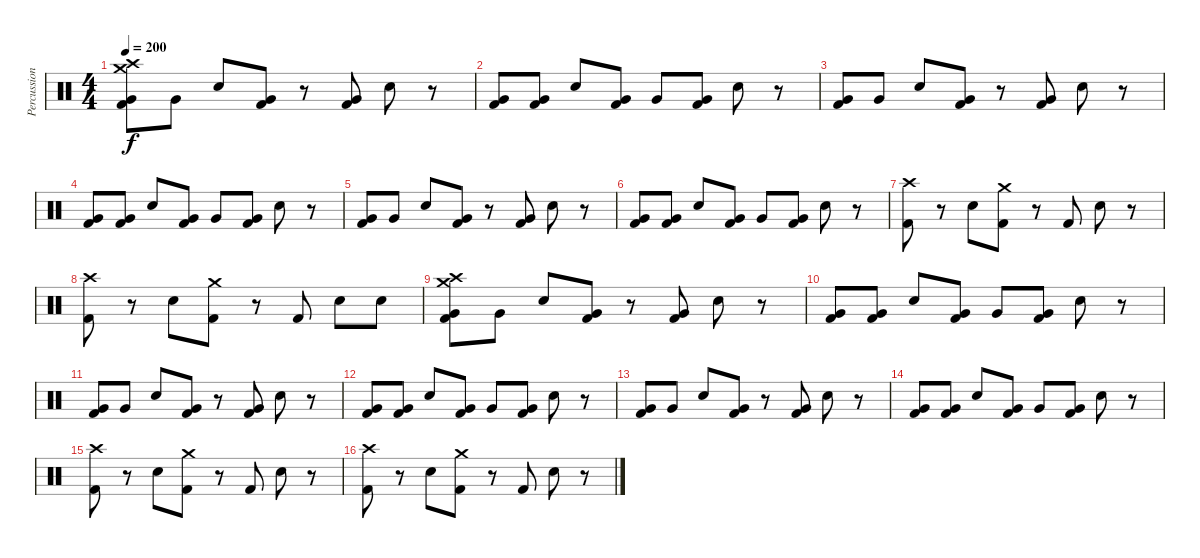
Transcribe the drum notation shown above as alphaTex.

\track ("Percussion" "Percussion") {instrument percussion}
\staff {score}
\articulation defaults
\ts (4 4)
\tempo 200
\clef neutral
\ks c
("Crash high (hit)" "Crash medium (hit)" "Very Low Tom (hit)" "Kick (hit) 2").8{dy f} "Very Low Tom (hit)".8 "Snare (hit) 2".8 ("Very Low Tom (hit)" "Kick (hit) 2").8 r.8 ("Very Low Tom (hit)" "Kick (hit) 2").8 "Snare (hit) 2".8 r.8 |
("Very Low Tom (hit)" "Kick (hit) 2").8 ("Very Low Tom (hit)" "Kick (hit) 2").8 "Snare (hit) 2".8 ("Very Low Tom (hit)" "Kick (hit) 2").8 "Very Low Tom (hit)".8 ("Very Low Tom (hit)" "Kick (hit) 2").8 "Snare (hit) 2".8 r.8 |
("Very Low Tom (hit)" "Kick (hit) 2").8 "Very Low Tom (hit)".8 "Snare (hit) 2".8 ("Very Low Tom (hit)" "Kick (hit) 2").8 r.8 ("Very Low Tom (hit)" "Kick (hit) 2").8 "Snare (hit) 2".8 r.8 |
("Very Low Tom (hit)" "Kick (hit) 2").8 ("Very Low Tom (hit)" "Kick (hit) 2").8 "Snare (hit) 2".8 ("Very Low Tom (hit)" "Kick (hit) 2").8 "Very Low Tom (hit)".8 ("Very Low Tom (hit)" "Kick (hit) 2").8 "Snare (hit) 2".8 r.8 |
("Very Low Tom (hit)" "Kick (hit) 2").8 "Very Low Tom (hit)".8 "Snare (hit) 2".8 ("Very Low Tom (hit)" "Kick (hit) 2").8 r.8 ("Very Low Tom (hit)" "Kick (hit) 2").8 "Snare (hit) 2".8 r.8 |
("Very Low Tom (hit)" "Kick (hit) 2").8 ("Very Low Tom (hit)" "Kick (hit) 2").8 "Snare (hit) 2".8 ("Very Low Tom (hit)" "Kick (hit) 2").8 "Very Low Tom (hit)".8 ("Very Low Tom (hit)" "Kick (hit) 2").8 "Snare (hit) 2".8 r.8 |
("Crash high (hit)" "Kick (hit) 2").8 r.8 "Snare (hit) 2".8 ("Crash medium (hit)" "Kick (hit) 2").8 r.8 "Kick (hit) 2".8 "Snare (hit) 2".8 r.8 |
("Crash high (hit)" "Kick (hit) 2").8 r.8 "Snare (hit) 2".8 ("Crash medium (hit)" "Kick (hit) 2").8 r.8 "Kick (hit) 2".8 "Snare (hit) 2".8 "Snare (hit) 2".8 |
("Crash high (hit)" "Crash medium (hit)" "Very Low Tom (hit)" "Kick (hit) 2").8 "Very Low Tom (hit)".8 "Snare (hit) 2".8 ("Very Low Tom (hit)" "Kick (hit) 2").8 r.8 ("Very Low Tom (hit)" "Kick (hit) 2").8 "Snare (hit) 2".8 r.8 |
("Very Low Tom (hit)" "Kick (hit) 2").8 ("Very Low Tom (hit)" "Kick (hit) 2").8 "Snare (hit) 2".8 ("Very Low Tom (hit)" "Kick (hit) 2").8 "Very Low Tom (hit)".8 ("Very Low Tom (hit)" "Kick (hit) 2").8 "Snare (hit) 2".8 r.8 |
("Very Low Tom (hit)" "Kick (hit) 2").8 "Very Low Tom (hit)".8 "Snare (hit) 2".8 ("Very Low Tom (hit)" "Kick (hit) 2").8 r.8 ("Very Low Tom (hit)" "Kick (hit) 2").8 "Snare (hit) 2".8 r.8 |
("Very Low Tom (hit)" "Kick (hit) 2").8 ("Very Low Tom (hit)" "Kick (hit) 2").8 "Snare (hit) 2".8 ("Very Low Tom (hit)" "Kick (hit) 2").8 "Very Low Tom (hit)".8 ("Very Low Tom (hit)" "Kick (hit) 2").8 "Snare (hit) 2".8 r.8 |
("Very Low Tom (hit)" "Kick (hit) 2").8 "Very Low Tom (hit)".8 "Snare (hit) 2".8 ("Very Low Tom (hit)" "Kick (hit) 2").8 r.8 ("Very Low Tom (hit)" "Kick (hit) 2").8 "Snare (hit) 2".8 r.8 |
("Very Low Tom (hit)" "Kick (hit) 2").8 ("Very Low Tom (hit)" "Kick (hit) 2").8 "Snare (hit) 2".8 ("Very Low Tom (hit)" "Kick (hit) 2").8 "Very Low Tom (hit)".8 ("Very Low Tom (hit)" "Kick (hit) 2").8 "Snare (hit) 2".8 r.8 |
("Crash high (hit)" "Kick (hit) 2").8 r.8 "Snare (hit) 2".8 ("Crash medium (hit)" "Kick (hit) 2").8 r.8 "Kick (hit) 2".8 "Snare (hit) 2".8 r.8 |
("Crash high (hit)" "Kick (hit) 2").8 r.8 "Snare (hit) 2".8 ("Crash medium (hit)" "Kick (hit) 2").8 r.8 "Kick (hit) 2".8 "Snare (hit) 2".8 r.8
